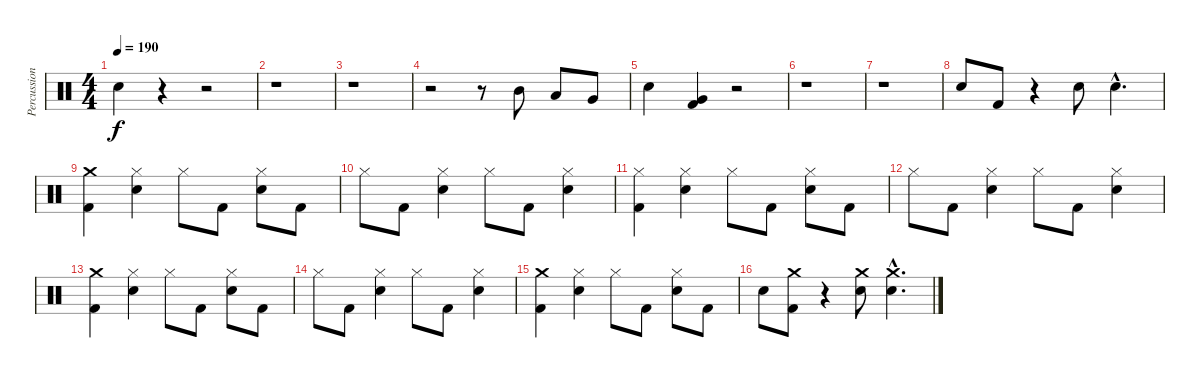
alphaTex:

\track ("Percussion" "Percussion") {instrument percussion}
\staff {score}
\articulation defaults
\ts (4 4)
\tempo 190
\clef neutral
\ks c "Snare (hit) 2".4{dy f}
r.4 r.2 |
r.1 |
r.1 |
r.2 r.8 "Mid Tom (hit)".8 "Low Tom (hit)".8 "Very Low Tom (hit)".8 |
"Snare (hit) 2".4 ("Very Low Tom (hit)" "Kick (hit) 2").4 r.2 |
r.1 |
r.1 |
"Snare (hit) 2".8 "Kick (hit) 2".8 r.4 "Snare (hit) 2".8 "Snare (hit) 2"{hac}.4{d} |
("Crash medium (hit)" "Kick (hit) 2").4 ("Hi-Hat (closed)" "Snare (hit) 2").4 "Hi-Hat (closed)".8 "Kick (hit) 2".8 ("Hi-Hat (closed)" "Snare (hit) 2").8 "Kick (hit) 2".8 |
"Hi-Hat (closed)".8 "Kick (hit) 2".8 ("Hi-Hat (closed)" "Snare (hit) 2").4 "Hi-Hat (closed)".8 "Kick (hit) 2".8 ("Hi-Hat (closed)" "Snare (hit) 2").4 |
("Hi-Hat (closed)" "Kick (hit) 2").4 ("Hi-Hat (closed)" "Snare (hit) 2").4 "Hi-Hat (closed)".8 "Kick (hit) 2".8 ("Hi-Hat (closed)" "Snare (hit) 2").8 "Kick (hit) 2".8 |
"Hi-Hat (closed)".8 "Kick (hit) 2".8 ("Hi-Hat (closed)" "Snare (hit) 2").4 "Hi-Hat (closed)".8 "Kick (hit) 2".8 ("Hi-Hat (closed)" "Snare (hit) 2").4 |
("Crash medium (hit)" "Kick (hit) 2").4 ("Hi-Hat (closed)" "Snare (hit) 2").4 "Hi-Hat (closed)".8 "Kick (hit) 2".8 ("Hi-Hat (closed)" "Snare (hit) 2").8 "Kick (hit) 2".8 |
"Hi-Hat (closed)".8 "Kick (hit) 2".8 ("Hi-Hat (closed)" "Snare (hit) 2").4 "Hi-Hat (closed)".8 "Kick (hit) 2".8 ("Hi-Hat (closed)" "Snare (hit) 2").4 |
("Crash medium (hit)" "Kick (hit) 2").4 ("Hi-Hat (closed)" "Snare (hit) 2").4 "Hi-Hat (closed)".8 "Kick (hit) 2".8 ("Hi-Hat (closed)" "Snare (hit) 2").8 "Kick (hit) 2".8 |
"Snare (hit) 2".8 ("Crash medium (hit)" "Kick (hit) 2").8 r.4 ("Crash medium (hit)" "Snare (hit) 2").8 ("Crash medium (hit)"{hac} "Snare (hit) 2"{hac}).4{d}
